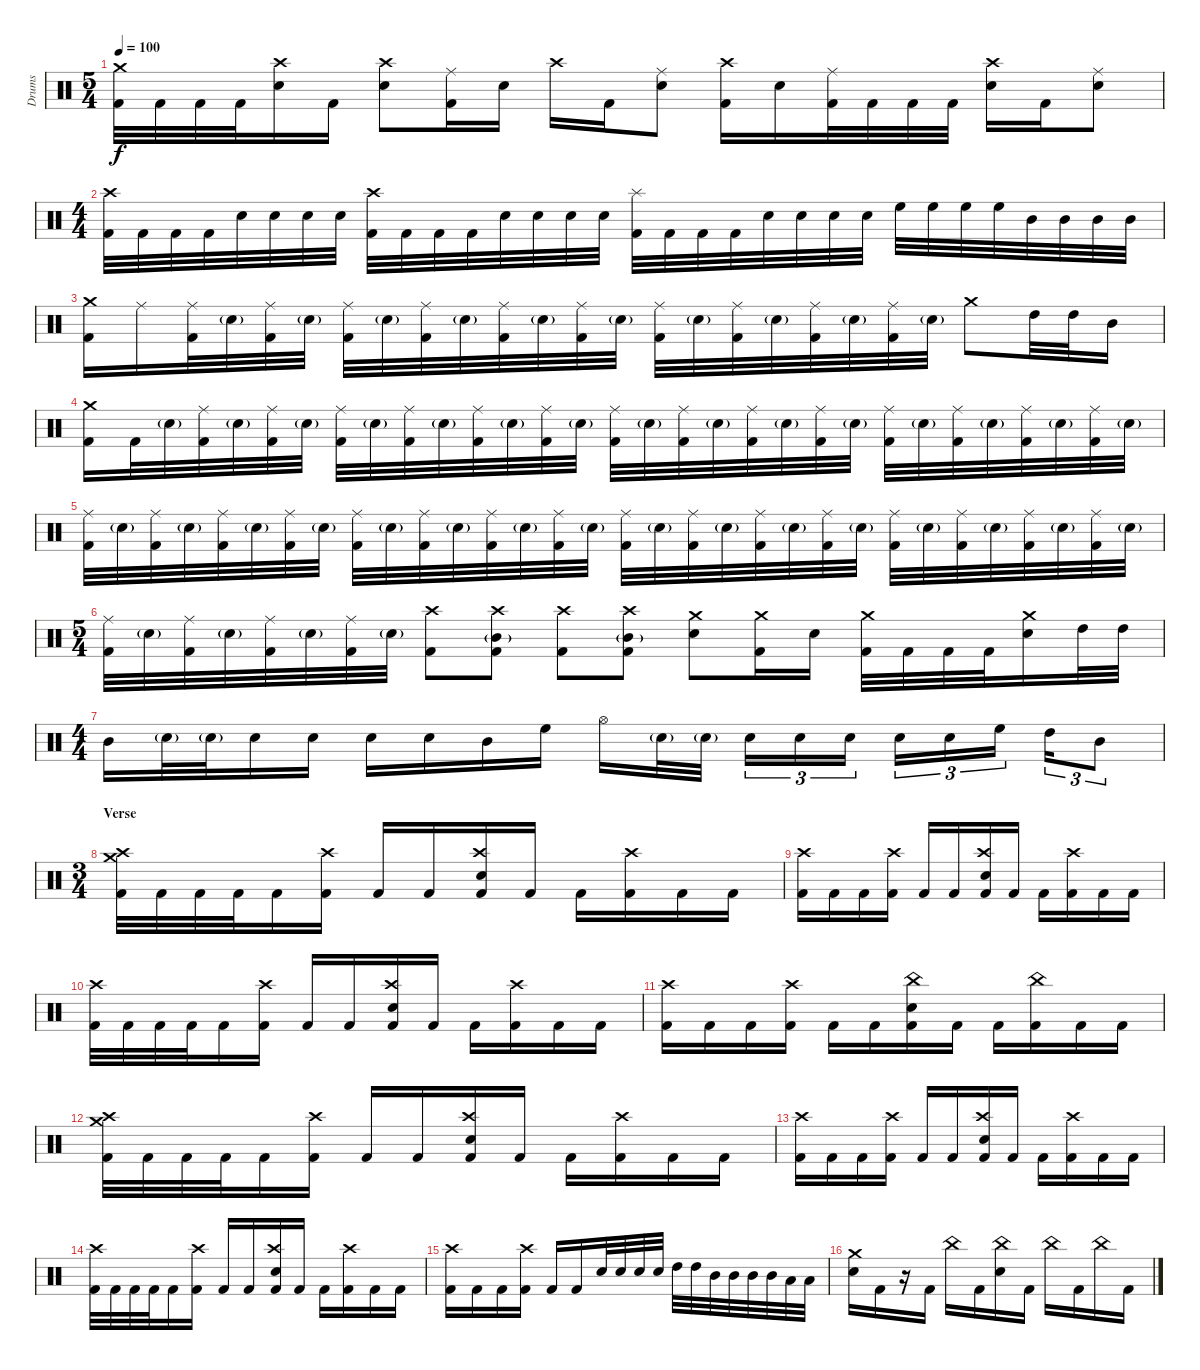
\track ("Drums" "Drums") {instrument percussion}
\staff {score}
\articulation defaults
\ts (5 4)
\tempo 100
\clef neutral
\ks c
("Crash medium (hit)" "Kick (hit) 2").32{dy f} "Kick (hit) 2".32 "Kick (hit) 2".32 "Kick (hit) 2".32 ("Crash high (hit)" "Snare (hit) 2").16 "Kick (hit) 2".16 ("Crash high (hit)" "Snare (hit) 2").8 ("Ride (middle)" "Kick (hit) 2").16 "Snare (hit) 2".16 "Crash high (hit)".16 "Kick (hit) 2".16 ("Ride (middle)" "Snare (hit) 2").8 ("Crash high (hit)" "Kick (hit) 2").16 "Snare (hit) 2".16 ("Ride (middle)" "Kick (hit) 2").32 "Kick (hit) 2".32 "Kick (hit) 2".32 "Kick (hit) 2".32 ("Crash high (hit)" "Snare (hit) 2").16 "Kick (hit) 2".16 ("Ride (middle)" "Snare (hit) 2").8 |
\ts (4 4)
("Crash high (hit)" "Kick (hit) 2").32 "Kick (hit) 2".32 "Kick (hit) 2".32 "Kick (hit) 2".32 "Snare (hit) 2".32 "Snare (hit) 2".32 "Snare (hit) 2".32 "Snare (hit) 2".32 ("Crash high (hit)" "Kick (hit) 2").32 "Kick (hit) 2".32 "Kick (hit) 2".32 "Kick (hit) 2".32 "Snare (hit) 2".32 "Snare (hit) 2".32 "Snare (hit) 2".32 "Snare (hit) 2".32 ("Splash (hit)" "Kick (hit) 2").32 "Kick (hit) 2".32 "Kick (hit) 2".32 "Kick (hit) 2".32 "Snare (hit) 2".32 "Snare (hit) 2".32 "Snare (hit) 2".32 "Snare (hit) 2".32 "High Floor Tom (hit)".32 "High Floor Tom (hit)".32 "High Floor Tom (hit)".32 "High Floor Tom (hit)".32 "Mid Tom (hit)".32 "Mid Tom (hit)".32 "Mid Tom (hit)".32 "Mid Tom (hit)".32 |
("Crash medium (hit)" "Kick (hit) 2").16 "Ride (middle)".16 ("Ride (middle)" "Kick (hit) 2").32 "Snare (hit) 2"{g}.32 ("Ride (middle)" "Kick (hit) 2").32 "Snare (hit) 2"{g}.32 ("Ride (middle)" "Kick (hit) 2").32 "Snare (hit) 2"{g}.32 ("Ride (middle)" "Kick (hit) 2").32 "Snare (hit) 2"{g}.32 ("Ride (middle)" "Kick (hit) 2").32 "Snare (hit) 2"{g}.32 ("Ride (middle)" "Kick (hit) 2").32 "Snare (hit) 2"{g}.32 ("Ride (middle)" "Kick (hit) 2").32 "Snare (hit) 2"{g}.32 ("Ride (middle)" "Kick (hit) 2").32 "Snare (hit) 2"{g}.32 ("Ride (middle)" "Kick (hit) 2").32 "Snare (hit) 2"{g}.32 ("Ride (middle)" "Kick (hit) 2").32 "Snare (hit) 2"{g}.32 "Crash medium (hit)".8 "High Tom (hit)".32 "High Tom (hit)".32 "Mid Tom (hit)".16 |
("Crash medium (hit)" "Kick (hit) 2").16 "Kick (hit) 2".32 "Snare (hit) 2"{g}.32 ("Ride (middle)" "Kick (hit) 2").32 "Snare (hit) 2"{g}.32 ("Ride (middle)" "Kick (hit) 2").32 "Snare (hit) 2"{g}.32 ("Ride (middle)" "Kick (hit) 2").32 "Snare (hit) 2"{g}.32 ("Ride (middle)" "Kick (hit) 2").32 "Snare (hit) 2"{g}.32 ("Ride (middle)" "Kick (hit) 2").32 "Snare (hit) 2"{g}.32 ("Ride (middle)" "Kick (hit) 2").32 "Snare (hit) 2"{g}.32 ("Ride (middle)" "Kick (hit) 2").32 "Snare (hit) 2"{g}.32 ("Ride (middle)" "Kick (hit) 2").32 "Snare (hit) 2"{g}.32 ("Ride (middle)" "Kick (hit) 2").32 "Snare (hit) 2"{g}.32 ("Ride (middle)" "Kick (hit) 2").32 "Snare (hit) 2"{g}.32 ("Ride (middle)" "Kick (hit) 2").32 "Snare (hit) 2"{g}.32 ("Ride (middle)" "Kick (hit) 2").32 "Snare (hit) 2"{g}.32 ("Ride (middle)" "Kick (hit) 2").32 "Snare (hit) 2"{g}.32 ("Ride (middle)" "Kick (hit) 2").32 "Snare (hit) 2"{g}.32 |
("Ride (middle)" "Kick (hit) 2").32 "Snare (hit) 2"{g}.32 ("Ride (middle)" "Kick (hit) 2").32 "Snare (hit) 2"{g}.32 ("Ride (middle)" "Kick (hit) 2").32 "Snare (hit) 2"{g}.32 ("Ride (middle)" "Kick (hit) 2").32 "Snare (hit) 2"{g}.32 ("Ride (middle)" "Kick (hit) 2").32 "Snare (hit) 2"{g}.32 ("Ride (middle)" "Kick (hit) 2").32 "Snare (hit) 2"{g}.32 ("Ride (middle)" "Kick (hit) 2").32 "Snare (hit) 2"{g}.32 ("Ride (middle)" "Kick (hit) 2").32 "Snare (hit) 2"{g}.32 ("Ride (middle)" "Kick (hit) 2").32 "Snare (hit) 2"{g}.32 ("Ride (middle)" "Kick (hit) 2").32 "Snare (hit) 2"{g}.32 ("Ride (middle)" "Kick (hit) 2").32 "Snare (hit) 2"{g}.32 ("Ride (middle)" "Kick (hit) 2").32 "Snare (hit) 2"{g}.32 ("Ride (middle)" "Kick (hit) 2").32 "Snare (hit) 2"{g}.32 ("Ride (middle)" "Kick (hit) 2").32 "Snare (hit) 2"{g}.32 ("Ride (middle)" "Kick (hit) 2").32 "Snare (hit) 2"{g}.32 ("Ride (middle)" "Kick (hit) 2").32 "Snare (hit) 2"{g}.32 |
\ts (5 4)
("Ride (middle)" "Kick (hit) 2").32 "Snare (hit) 2"{g}.32 ("Ride (middle)" "Kick (hit) 2").32 "Snare (hit) 2"{g}.32 ("Ride (middle)" "Kick (hit) 2").32 "Snare (hit) 2"{g}.32 ("Ride (middle)" "Kick (hit) 2").32 "Snare (hit) 2"{g}.32 ("Crash high (hit)" "Kick (hit) 2").8 ("Crash high (hit)" "Mid Tom (hit)"{g} "Kick (hit) 2").8 ("Crash high (hit)" "Kick (hit) 2").8 ("Crash high (hit)" "Mid Tom (hit)"{g} "Kick (hit) 2").8 ("Crash medium (hit)" "Snare (hit) 2").8 ("Crash medium (hit)" "Kick (hit) 2").16 "Snare (hit) 2".16 ("Crash medium (hit)" "Kick (hit) 2").32 "Kick (hit) 2".32 "Kick (hit) 2".32 "Kick (hit) 2".32 ("Crash medium (hit)" "Snare (hit) 2").16 "High Tom (hit)".32 "High Tom (hit)".32 |
\ts (4 4)
"Mid Tom (hit)".16 "Snare (hit) 2"{g}.32 "Snare (hit) 2"{g}.32 "Snare (hit) 2".16 "Snare (hit) 2".16 "Snare (hit) 2".16 "Snare (hit) 2".16 "Mid Tom (hit)".16 "High Floor Tom (hit)".16 "Hi-Hat (open)".16 "Snare (hit) 2"{g}.32 "Snare (hit) 2"{g}.32 "Snare (hit) 2".16{tu (3 2)} "Snare (hit) 2".16{tu (3 2)} "Snare (hit) 2".16{tu (3 2)} "Snare (hit) 2".16{tu (3 2)} "Snare (hit) 2".16{tu (3 2)} "High Floor Tom (hit)".16{tu (3 2)} "High Tom (hit)".16{tu (3 2)} "Mid Tom (hit)".8{tu (3 2)} |
\ts (3 4)
\section ("" "Verse")
("Crash high (hit)" "Crash medium (hit)" "Kick (hit) 2").32 "Kick (hit) 2".32 "Kick (hit) 2".32 "Kick (hit) 2".32 "Kick (hit) 2".16 ("Crash high (hit)" "Kick (hit) 2").16 "Kick (hit) 2".16 "Kick (hit) 2".16 ("Crash high (hit)" "Snare (hit) 2" "Kick (hit) 2").16 "Kick (hit) 2".16 "Kick (hit) 2".16 ("Crash high (hit)" "Kick (hit) 2").16 "Kick (hit) 2".16 "Kick (hit) 2".16 |
("Crash high (hit)" "Kick (hit) 2").16 "Kick (hit) 2".16 "Kick (hit) 2".16 ("Crash high (hit)" "Kick (hit) 2").16 "Kick (hit) 2".16 "Kick (hit) 2".16 ("Crash high (hit)" "Snare (hit) 2" "Kick (hit) 2").16 "Kick (hit) 2".16 "Kick (hit) 2".16 ("Crash high (hit)" "Kick (hit) 2").16 "Kick (hit) 2".16 "Kick (hit) 2".16 |
("Crash high (hit)" "Kick (hit) 2").32 "Kick (hit) 2".32 "Kick (hit) 2".32 "Kick (hit) 2".32 "Kick (hit) 2".16 ("Crash high (hit)" "Kick (hit) 2").16 "Kick (hit) 2".16 "Kick (hit) 2".16 ("Crash high (hit)" "Snare (hit) 2" "Kick (hit) 2").16 "Kick (hit) 2".16 "Kick (hit) 2".16 ("Crash high (hit)" "Kick (hit) 2").16 "Kick (hit) 2".16 "Kick (hit) 2".16 |
("Crash high (hit)" "Kick (hit) 2").16 "Kick (hit) 2".16 "Kick (hit) 2".16 ("Crash high (hit)" "Kick (hit) 2").16 "Kick (hit) 2".16 "Kick (hit) 2".16 ("China (hit)" "Snare (hit) 2" "Kick (hit) 2").16 "Kick (hit) 2".16 "Kick (hit) 2".16 ("China (hit)" "Kick (hit) 2").16 "Kick (hit) 2".16 "Kick (hit) 2".16 |
("Crash high (hit)" "Crash medium (hit)" "Kick (hit) 2").32 "Kick (hit) 2".32 "Kick (hit) 2".32 "Kick (hit) 2".32 "Kick (hit) 2".16 ("Crash high (hit)" "Kick (hit) 2").16 "Kick (hit) 2".16 "Kick (hit) 2".16 ("Crash high (hit)" "Snare (hit) 2" "Kick (hit) 2").16 "Kick (hit) 2".16 "Kick (hit) 2".16 ("Crash high (hit)" "Kick (hit) 2").16 "Kick (hit) 2".16 "Kick (hit) 2".16 |
("Crash high (hit)" "Kick (hit) 2").16 "Kick (hit) 2".16 "Kick (hit) 2".16 ("Crash high (hit)" "Kick (hit) 2").16 "Kick (hit) 2".16 "Kick (hit) 2".16 ("Crash high (hit)" "Snare (hit) 2" "Kick (hit) 2").16 "Kick (hit) 2".16 "Kick (hit) 2".16 ("Crash high (hit)" "Kick (hit) 2").16 "Kick (hit) 2".16 "Kick (hit) 2".16 |
("Crash high (hit)" "Kick (hit) 2").32 "Kick (hit) 2".32 "Kick (hit) 2".32 "Kick (hit) 2".32 "Kick (hit) 2".16 ("Crash high (hit)" "Kick (hit) 2").16 "Kick (hit) 2".16 "Kick (hit) 2".16 ("Crash high (hit)" "Snare (hit) 2" "Kick (hit) 2").16 "Kick (hit) 2".16 "Kick (hit) 2".16 ("Crash high (hit)" "Kick (hit) 2").16 "Kick (hit) 2".16 "Kick (hit) 2".16 |
("Crash high (hit)" "Kick (hit) 2").16 "Kick (hit) 2".16 "Kick (hit) 2".16 ("Crash high (hit)" "Kick (hit) 2").16 "Kick (hit) 2".16 "Kick (hit) 2".16 "Snare (hit) 2".32 "Snare (hit) 2".32 "Snare (hit) 2".32 "Snare (hit) 2".32 "High Tom (hit)".32 "High Tom (hit)".32 "Mid Tom (hit)".32 "Mid Tom (hit)".32 "Mid Tom (hit)".32 "Mid Tom (hit)".32 "Low Tom (hit)".32 "Low Tom (hit)".32 |
("Crash medium (hit)" "Snare (hit) 2").16 "Kick (hit) 2".16 r.16 "Kick (hit) 2".16 "China (hit)".16 "Kick (hit) 2".16 ("China (hit)" "Snare (hit) 2").16 "Kick (hit) 2".16 "China (hit)".16 "Kick (hit) 2".16 "China (hit)".16 "Kick (hit) 2".16
